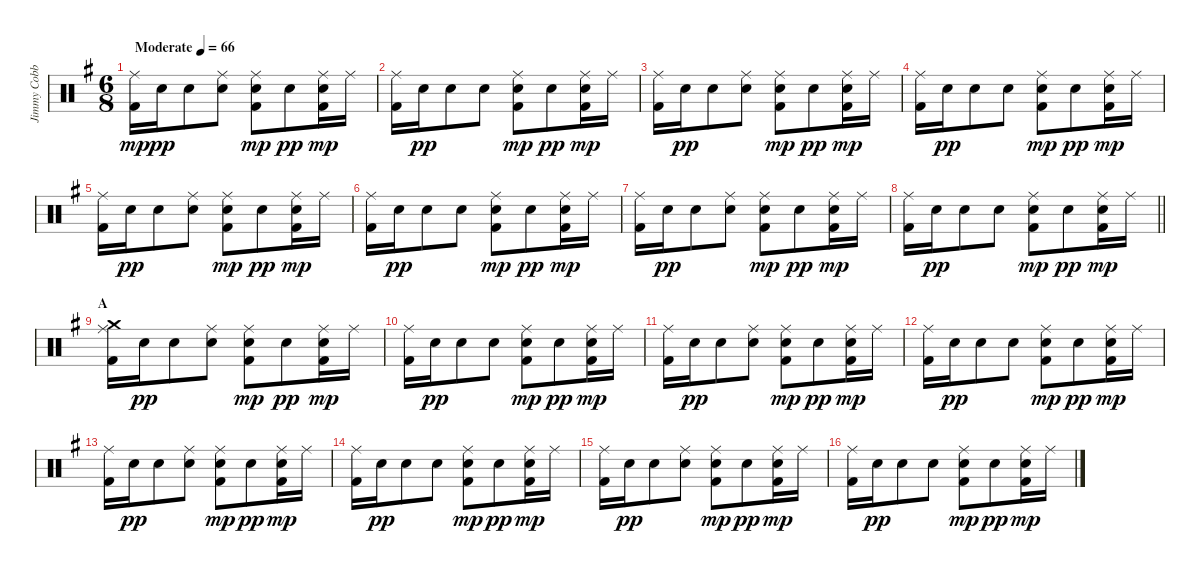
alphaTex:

\track ("Jimmy Cobb" "Jimmy Cobb") {instrument percussion}
\staff {score}
\articulation defaults
\ts (6 8)
\tempo (66 "Moderate")
\clef neutral
\ks g
("Ride (middle)" "Kick (hit) 2").16{dy mp} "Snare (hit) 2".16{dy pp} "Snare (hit) 2".8 ("Ride (middle)" "Snare (hit) 2").8 ("Ride (middle)" "Snare (hit) 2" "Kick (hit) 2").8{dy mp} "Snare (hit) 2".8{dy pp} ("Ride (middle)" "Snare (hit) 2" "Kick (hit) 2").16{dy mp} "Ride (middle)".16 |
("Ride (middle)" "Kick (hit) 2").16 "Snare (hit) 2".16{dy pp} "Snare (hit) 2".8 "Snare (hit) 2".8 ("Ride (middle)" "Snare (hit) 2" "Kick (hit) 2").8{dy mp} "Snare (hit) 2".8{dy pp} ("Ride (middle)" "Snare (hit) 2" "Kick (hit) 2").16{dy mp} "Ride (middle)".16 |
("Ride (middle)" "Kick (hit) 2").16 "Snare (hit) 2".16{dy pp} "Snare (hit) 2".8 ("Ride (middle)" "Snare (hit) 2").8 ("Ride (middle)" "Snare (hit) 2" "Kick (hit) 2").8{dy mp} "Snare (hit) 2".8{dy pp} ("Ride (middle)" "Snare (hit) 2" "Kick (hit) 2").16{dy mp} "Ride (middle)".16 |
("Ride (middle)" "Kick (hit) 2").16 "Snare (hit) 2".16{dy pp} "Snare (hit) 2".8 "Snare (hit) 2".8 ("Ride (middle)" "Snare (hit) 2" "Kick (hit) 2").8{dy mp} "Snare (hit) 2".8{dy pp} ("Ride (middle)" "Snare (hit) 2" "Kick (hit) 2").16{dy mp} "Ride (middle)".16 |
("Ride (middle)" "Kick (hit) 2").16 "Snare (hit) 2".16{dy pp} "Snare (hit) 2".8 ("Ride (middle)" "Snare (hit) 2").8 ("Ride (middle)" "Snare (hit) 2" "Kick (hit) 2").8{dy mp} "Snare (hit) 2".8{dy pp} ("Ride (middle)" "Snare (hit) 2" "Kick (hit) 2").16{dy mp} "Ride (middle)".16 |
("Ride (middle)" "Kick (hit) 2").16 "Snare (hit) 2".16{dy pp} "Snare (hit) 2".8 "Snare (hit) 2".8 ("Ride (middle)" "Snare (hit) 2" "Kick (hit) 2").8{dy mp} "Snare (hit) 2".8{dy pp} ("Ride (middle)" "Snare (hit) 2" "Kick (hit) 2").16{dy mp} "Ride (middle)".16 |
("Ride (middle)" "Kick (hit) 2").16 "Snare (hit) 2".16{dy pp} "Snare (hit) 2".8 ("Ride (middle)" "Snare (hit) 2").8 ("Ride (middle)" "Snare (hit) 2" "Kick (hit) 2").8{dy mp} "Snare (hit) 2".8{dy pp} ("Ride (middle)" "Snare (hit) 2" "Kick (hit) 2").16{dy mp} "Ride (middle)".16 |
\barLineRight lightlight
("Ride (middle)" "Kick (hit) 2").16 "Snare (hit) 2".16{dy pp} "Snare (hit) 2".8 "Snare (hit) 2".8 ("Ride (middle)" "Snare (hit) 2" "Kick (hit) 2").8{dy mp} "Snare (hit) 2".8{dy pp} ("Ride (middle)" "Snare (hit) 2" "Kick (hit) 2").16{dy mp} "Ride (middle)".16 |
\section ("" "A")
("Ride (middle)" "Crash medium (hit)" "Kick (hit) 2").16 "Snare (hit) 2".16{dy pp} "Snare (hit) 2".8 ("Ride (middle)" "Snare (hit) 2").8 ("Ride (middle)" "Snare (hit) 2" "Kick (hit) 2").8{dy mp} "Snare (hit) 2".8{dy pp} ("Ride (middle)" "Snare (hit) 2" "Kick (hit) 2").16{dy mp} "Ride (middle)".16 |
("Ride (middle)" "Kick (hit) 2").16 "Snare (hit) 2".16{dy pp} "Snare (hit) 2".8 "Snare (hit) 2".8 ("Ride (middle)" "Snare (hit) 2" "Kick (hit) 2").8{dy mp} "Snare (hit) 2".8{dy pp} ("Ride (middle)" "Snare (hit) 2" "Kick (hit) 2").16{dy mp} "Ride (middle)".16 |
("Ride (middle)" "Kick (hit) 2").16 "Snare (hit) 2".16{dy pp} "Snare (hit) 2".8 ("Ride (middle)" "Snare (hit) 2").8 ("Ride (middle)" "Snare (hit) 2" "Kick (hit) 2").8{dy mp} "Snare (hit) 2".8{dy pp} ("Ride (middle)" "Snare (hit) 2" "Kick (hit) 2").16{dy mp} "Ride (middle)".16 |
("Ride (middle)" "Kick (hit) 2").16 "Snare (hit) 2".16{dy pp} "Snare (hit) 2".8 "Snare (hit) 2".8 ("Ride (middle)" "Snare (hit) 2" "Kick (hit) 2").8{dy mp} "Snare (hit) 2".8{dy pp} ("Ride (middle)" "Snare (hit) 2" "Kick (hit) 2").16{dy mp} "Ride (middle)".16 |
("Ride (middle)" "Kick (hit) 2").16 "Snare (hit) 2".16{dy pp} "Snare (hit) 2".8 ("Ride (middle)" "Snare (hit) 2").8 ("Ride (middle)" "Snare (hit) 2" "Kick (hit) 2").8{dy mp} "Snare (hit) 2".8{dy pp} ("Ride (middle)" "Snare (hit) 2" "Kick (hit) 2").16{dy mp} "Ride (middle)".16 |
("Ride (middle)" "Kick (hit) 2").16 "Snare (hit) 2".16{dy pp} "Snare (hit) 2".8 "Snare (hit) 2".8 ("Ride (middle)" "Snare (hit) 2" "Kick (hit) 2").8{dy mp} "Snare (hit) 2".8{dy pp} ("Ride (middle)" "Snare (hit) 2" "Kick (hit) 2").16{dy mp} "Ride (middle)".16 |
("Ride (middle)" "Kick (hit) 2").16 "Snare (hit) 2".16{dy pp} "Snare (hit) 2".8 ("Ride (middle)" "Snare (hit) 2").8 ("Ride (middle)" "Snare (hit) 2" "Kick (hit) 2").8{dy mp} "Snare (hit) 2".8{dy pp} ("Ride (middle)" "Snare (hit) 2" "Kick (hit) 2").16{dy mp} "Ride (middle)".16 |
("Ride (middle)" "Kick (hit) 2").16 "Snare (hit) 2".16{dy pp} "Snare (hit) 2".8 "Snare (hit) 2".8 ("Ride (middle)" "Snare (hit) 2" "Kick (hit) 2").8{dy mp} "Snare (hit) 2".8{dy pp} ("Ride (middle)" "Snare (hit) 2" "Kick (hit) 2").16{dy mp} "Ride (middle)".16
